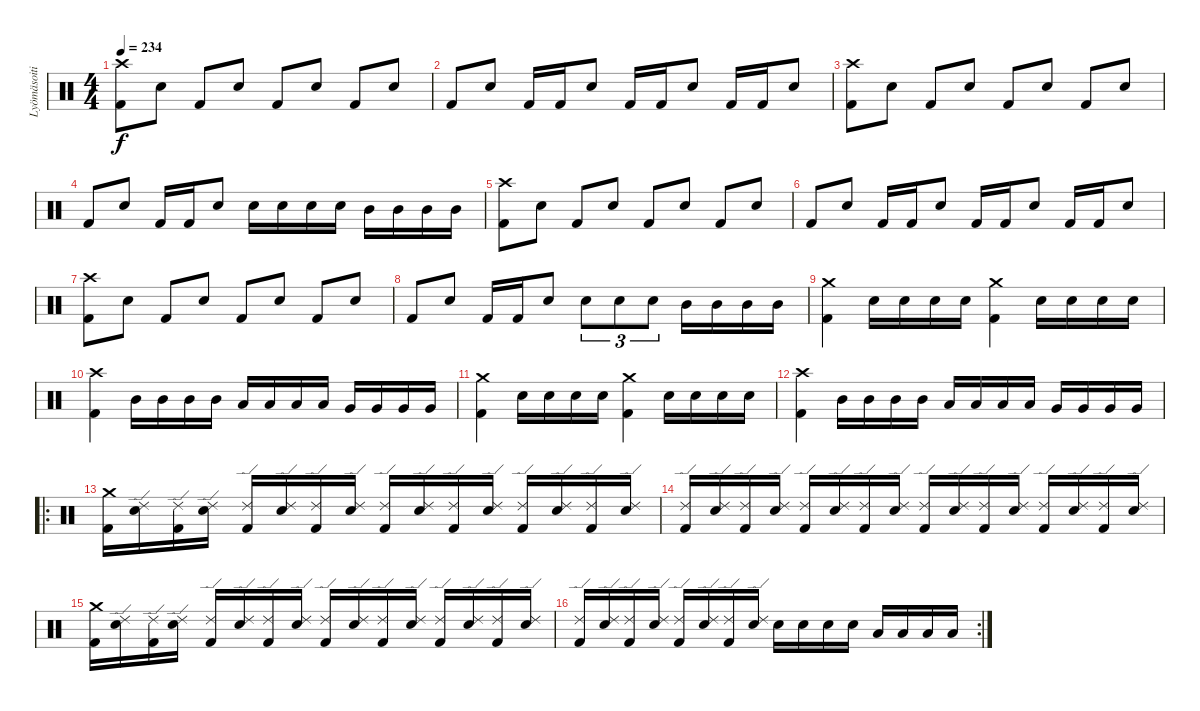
\track ("Lyömäsoitin" "Lyömäsoiti") {instrument percussion}
\staff {score}
\articulation defaults
\ts (4 4)
\tempo 234
\clef neutral
\ks c
("Crash high (hit)" "Kick (hit) 2").8{dy f} "Snare (hit) 2".8 "Kick (hit) 2".8 "Snare (hit) 2".8 "Kick (hit) 2".8 "Snare (hit) 2".8 "Kick (hit) 2".8 "Snare (hit) 2".8 |
"Kick (hit) 2".8 "Snare (hit) 2".8 "Kick (hit) 2".16 "Kick (hit) 2".16 "Snare (hit) 2".8 "Kick (hit) 2".16 "Kick (hit) 2".16 "Snare (hit) 2".8 "Kick (hit) 2".16 "Kick (hit) 2".16 "Snare (hit) 2".8 |
("Crash high (hit)" "Kick (hit) 2").8 "Snare (hit) 2".8 "Kick (hit) 2".8 "Snare (hit) 2".8 "Kick (hit) 2".8 "Snare (hit) 2".8 "Kick (hit) 2".8 "Snare (hit) 2".8 |
"Kick (hit) 2".8 "Snare (hit) 2".8 "Kick (hit) 2".16 "Kick (hit) 2".16 "Snare (hit) 2".8 "Electric Snare (hit)".16 "Electric Snare (hit)".16 "Electric Snare (hit)".16 "Electric Snare (hit)".16 "Mid Tom (hit)".16 "Mid Tom (hit)".16 "Mid Tom (hit)".16 "Mid Tom (hit)".16 |
("Crash high (hit)" "Kick (hit) 2").8 "Snare (hit) 2".8 "Kick (hit) 2".8 "Snare (hit) 2".8 "Kick (hit) 2".8 "Snare (hit) 2".8 "Kick (hit) 2".8 "Snare (hit) 2".8 |
"Kick (hit) 2".8 "Snare (hit) 2".8 "Kick (hit) 2".16 "Kick (hit) 2".16 "Snare (hit) 2".8 "Kick (hit) 2".16 "Kick (hit) 2".16 "Snare (hit) 2".8 "Kick (hit) 2".16 "Kick (hit) 2".16 "Snare (hit) 2".8 |
("Crash high (hit)" "Kick (hit) 2").8 "Snare (hit) 2".8 "Kick (hit) 2".8 "Snare (hit) 2".8 "Kick (hit) 2".8 "Snare (hit) 2".8 "Kick (hit) 2".8 "Snare (hit) 2".8 |
"Kick (hit) 2".8 "Snare (hit) 2".8 "Kick (hit) 2".16 "Kick (hit) 2".16 "Snare (hit) 2".8 "Electric Snare (hit)".8{tu (3 2)} "Electric Snare (hit)".8{tu (3 2)} "Electric Snare (hit)".8{tu (3 2)} "Mid Tom (hit)".16 "Mid Tom (hit)".16 "Mid Tom (hit)".16 "Mid Tom (hit)".16 |
("Crash medium (hit)" "Kick (hit) 2").4 "Electric Snare (hit)".16 "Electric Snare (hit)".16 "Electric Snare (hit)".16 "Electric Snare (hit)".16 ("Crash medium (hit)" "Kick (hit) 2").4 "Electric Snare (hit)".16 "Electric Snare (hit)".16 "Electric Snare (hit)".16 "Electric Snare (hit)".16 |
("Crash high (hit)" "Kick (hit) 2").4 "Mid Tom (hit)".16 "Mid Tom (hit)".16 "Mid Tom (hit)".16 "Mid Tom (hit)".16 "Low Tom (hit)".16 "Low Tom (hit)".16 "Low Tom (hit)".16 "Low Tom (hit)".16 "Very Low Tom (hit)".16 "Very Low Tom (hit)".16 "Very Low Tom (hit)".16 "Very Low Tom (hit)".16 |
("Crash medium (hit)" "Kick (hit) 2").4 "Electric Snare (hit)".16 "Electric Snare (hit)".16 "Electric Snare (hit)".16 "Electric Snare (hit)".16 ("Crash medium (hit)" "Kick (hit) 2").4 "Electric Snare (hit)".16 "Electric Snare (hit)".16 "Electric Snare (hit)".16 "Electric Snare (hit)".16 |
("Crash high (hit)" "Kick (hit) 2").4 "Mid Tom (hit)".16 "Mid Tom (hit)".16 "Mid Tom (hit)".16 "Mid Tom (hit)".16 "Low Tom (hit)".16 "Low Tom (hit)".16 "Low Tom (hit)".16 "Low Tom (hit)".16 "Very Low Tom (hit)".16 "Very Low Tom (hit)".16 "Very Low Tom (hit)".16 "Very Low Tom (hit)".16 |
\ro
("Crash medium (hit)" "Kick (hit) 2").16 ("Ride (edge) 2" "Electric Snare (hit)").16 ("Ride (edge) 2" "Kick (hit) 2").16 ("Ride (edge) 2" "Electric Snare (hit)").16 ("Ride (edge) 2" "Kick (hit) 2").16 ("Ride (edge) 2" "Electric Snare (hit)").16 ("Ride (edge) 2" "Kick (hit) 2").16 ("Ride (edge) 2" "Electric Snare (hit)").16 ("Ride (edge) 2" "Kick (hit) 2").16 ("Ride (edge) 2" "Electric Snare (hit)").16 ("Ride (edge) 2" "Kick (hit) 2").16 ("Ride (edge) 2" "Electric Snare (hit)").16 ("Ride (edge) 2" "Kick (hit) 2").16 ("Ride (edge) 2" "Electric Snare (hit)").16 ("Ride (edge) 2" "Kick (hit) 2").16 ("Ride (edge) 2" "Electric Snare (hit)").16 |
("Ride (edge) 2" "Kick (hit) 2").16 ("Ride (edge) 2" "Electric Snare (hit)").16 ("Ride (edge) 2" "Kick (hit) 2").16 ("Ride (edge) 2" "Electric Snare (hit)").16 ("Ride (edge) 2" "Kick (hit) 2").16 ("Ride (edge) 2" "Electric Snare (hit)").16 ("Ride (edge) 2" "Kick (hit) 2").16 ("Ride (edge) 2" "Electric Snare (hit)").16 ("Ride (edge) 2" "Kick (hit) 2").16 ("Ride (edge) 2" "Electric Snare (hit)").16 ("Ride (edge) 2" "Kick (hit) 2").16 ("Ride (edge) 2" "Electric Snare (hit)").16 ("Ride (edge) 2" "Kick (hit) 2").16 ("Ride (edge) 2" "Electric Snare (hit)").16 ("Ride (edge) 2" "Kick (hit) 2").16 ("Ride (edge) 2" "Electric Snare (hit)").16 |
("Crash medium (hit)" "Kick (hit) 2").16 ("Ride (edge) 2" "Electric Snare (hit)").16 ("Ride (edge) 2" "Kick (hit) 2").16 ("Ride (edge) 2" "Electric Snare (hit)").16 ("Ride (edge) 2" "Kick (hit) 2").16 ("Ride (edge) 2" "Electric Snare (hit)").16 ("Ride (edge) 2" "Kick (hit) 2").16 ("Ride (edge) 2" "Electric Snare (hit)").16 ("Ride (edge) 2" "Kick (hit) 2").16 ("Ride (edge) 2" "Electric Snare (hit)").16 ("Ride (edge) 2" "Kick (hit) 2").16 ("Ride (edge) 2" "Electric Snare (hit)").16 ("Ride (edge) 2" "Kick (hit) 2").16 ("Ride (edge) 2" "Electric Snare (hit)").16 ("Ride (edge) 2" "Kick (hit) 2").16 ("Ride (edge) 2" "Electric Snare (hit)").16 |
\rc 2
("Ride (edge) 2" "Kick (hit) 2").16 ("Ride (edge) 2" "Electric Snare (hit)").16 ("Ride (edge) 2" "Kick (hit) 2").16 ("Ride (edge) 2" "Electric Snare (hit)").16 ("Ride (edge) 2" "Kick (hit) 2").16 ("Ride (edge) 2" "Electric Snare (hit)").16 ("Ride (edge) 2" "Kick (hit) 2").16 ("Ride (edge) 2" "Electric Snare (hit)").16 "Electric Snare (hit)".16 "Electric Snare (hit)".16 "Electric Snare (hit)".16 "Electric Snare (hit)".16 "Low Tom (hit)".16 "Low Tom (hit)".16 "Low Tom (hit)".16 "Low Tom (hit)".16
